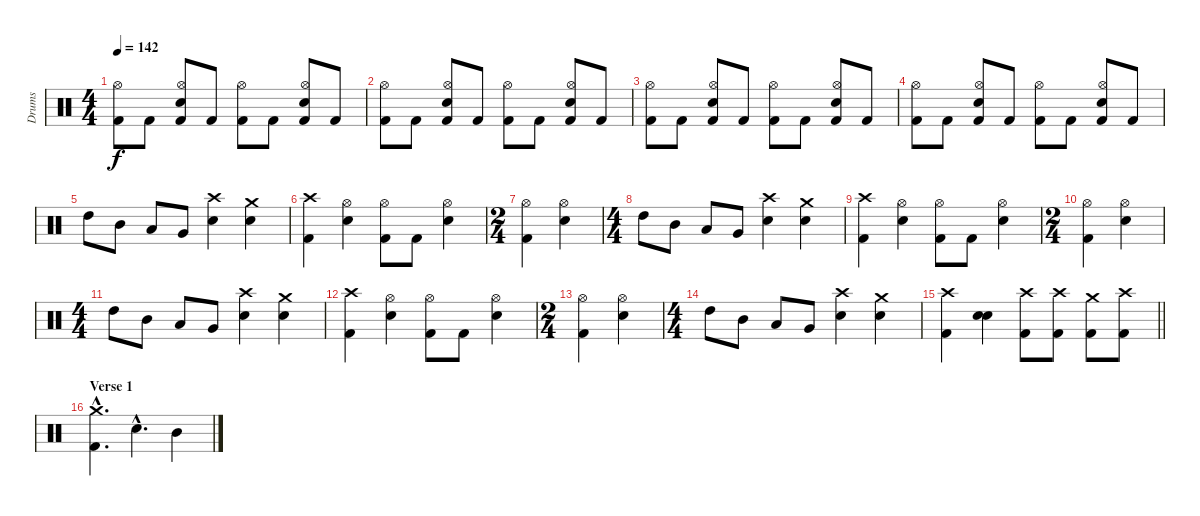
\track ("Drums" "Drums") {instrument percussion}
\staff {score}
\articulation defaults
\ts (4 4)
\tempo 142
\clef neutral
\ks c
("Kick (hit) 2" "Hi-Hat (open)").8{dy f} "Kick (hit) 2".8 ("Kick (hit) 2" "Snare (hit) 2" "Hi-Hat (open)").8 "Kick (hit) 2".8 ("Kick (hit) 2" "Hi-Hat (open)").8 "Kick (hit) 2".8 ("Kick (hit) 2" "Snare (hit) 2" "Hi-Hat (open)").8 "Kick (hit) 2".8 |
("Kick (hit) 2" "Hi-Hat (open)").8 "Kick (hit) 2".8 ("Kick (hit) 2" "Snare (hit) 2" "Hi-Hat (open)").8 "Kick (hit) 2".8 ("Kick (hit) 2" "Hi-Hat (open)").8 "Kick (hit) 2".8 ("Kick (hit) 2" "Snare (hit) 2" "Hi-Hat (open)").8 "Kick (hit) 2".8 |
("Kick (hit) 2" "Hi-Hat (open)").8 "Kick (hit) 2".8 ("Kick (hit) 2" "Snare (hit) 2" "Hi-Hat (open)").8 "Kick (hit) 2".8 ("Kick (hit) 2" "Hi-Hat (open)").8 "Kick (hit) 2".8 ("Kick (hit) 2" "Snare (hit) 2" "Hi-Hat (open)").8 "Kick (hit) 2".8 |
("Kick (hit) 2" "Hi-Hat (open)").8 "Kick (hit) 2".8 ("Kick (hit) 2" "Snare (hit) 2" "Hi-Hat (open)").8 "Kick (hit) 2".8 ("Kick (hit) 2" "Hi-Hat (open)").8 "Kick (hit) 2".8 ("Kick (hit) 2" "Snare (hit) 2" "Hi-Hat (open)").8 "Kick (hit) 2".8 |
"High Tom (hit)".8 "Mid Tom (hit)".8 "Low Tom (hit)".8 "Very Low Tom (hit)".8 ("Snare (hit) 2" "Crash high (hit)").4 ("Snare (hit) 2" "Crash medium (hit)").4 |
("Kick (hit) 2" "Crash high (hit)").4 ("Snare (hit) 2" "Hi-Hat (open)").4 ("Kick (hit) 2" "Hi-Hat (open)").8 "Kick (hit) 2".8 ("Snare (hit) 2" "Hi-Hat (open)").4 |
\ts (2 4)
("Kick (hit) 2" "Hi-Hat (open)").4 ("Snare (hit) 2" "Hi-Hat (open)").4 |
\ts (4 4)
"High Tom (hit)".8 "Mid Tom (hit)".8 "Low Tom (hit)".8 "Very Low Tom (hit)".8 ("Snare (hit) 2" "Crash high (hit)").4 ("Snare (hit) 2" "Crash medium (hit)").4 |
("Kick (hit) 2" "Crash high (hit)").4 ("Snare (hit) 2" "Hi-Hat (open)").4 ("Kick (hit) 2" "Hi-Hat (open)").8 "Kick (hit) 2".8 ("Snare (hit) 2" "Hi-Hat (open)").4 |
\ts (2 4)
("Kick (hit) 2" "Hi-Hat (open)").4 ("Snare (hit) 2" "Hi-Hat (open)").4 |
\ts (4 4)
"High Tom (hit)".8 "Mid Tom (hit)".8 "Low Tom (hit)".8 "Very Low Tom (hit)".8 ("Snare (hit) 2" "Crash high (hit)").4 ("Snare (hit) 2" "Crash medium (hit)").4 |
("Kick (hit) 2" "Crash high (hit)").4 ("Snare (hit) 2" "Hi-Hat (open)").4 ("Kick (hit) 2" "Hi-Hat (open)").8 "Kick (hit) 2".8 ("Snare (hit) 2" "Hi-Hat (open)").4 |
\ts (2 4)
("Kick (hit) 2" "Hi-Hat (open)").4 ("Snare (hit) 2" "Hi-Hat (open)").4 |
\ts (4 4)
"High Tom (hit)".8 "Mid Tom (hit)".8 "Low Tom (hit)".8 "Very Low Tom (hit)".8 ("Snare (hit) 2" "Crash high (hit)").4 ("Snare (hit) 2" "Crash medium (hit)").4 |
\barLineRight lightlight
("Kick (hit) 2" "Crash high (hit)").4 ("Snare (hit) 2" "Electric Snare (hit)").4 ("Kick (hit) 2" "Crash high (hit)").8 ("Kick (hit) 2" "Crash high (hit)").8 ("Kick (hit) 2" "Crash medium (hit)").8 ("Kick (hit) 2" "Crash high (hit)").8 |
\section ("" "Verse 1")
("Kick (hit) 2"{hac} "Crash medium (hit)"{hac}).4{d} "Snare (hit) 2"{hac}.4{d} "Mid Tom (hit)".4
